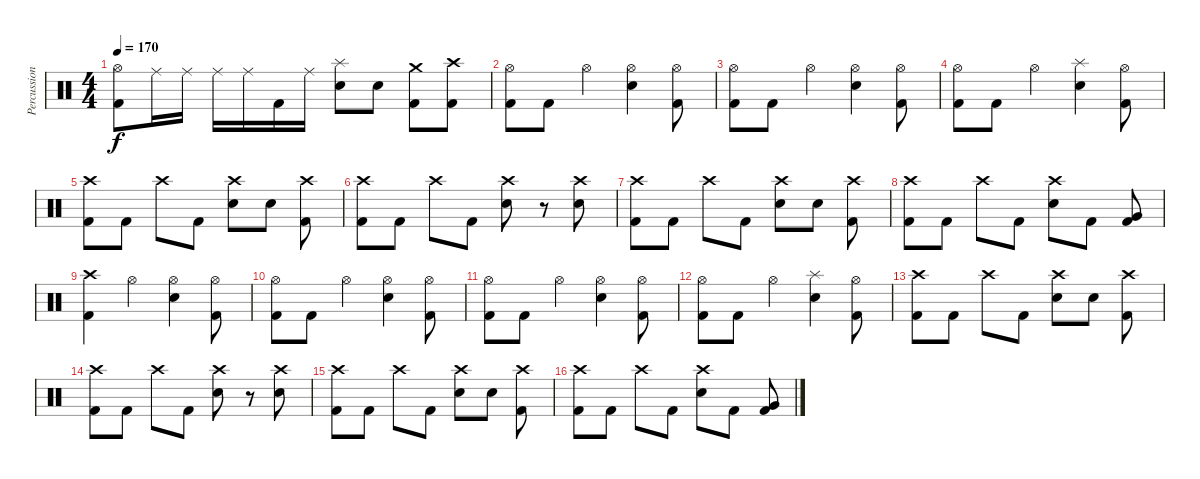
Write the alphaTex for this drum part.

\track ("Percussion" "Percussion") {instrument percussion}
\staff {score}
\articulation defaults
\ts (4 4)
\tempo 170
\clef neutral
\ks c
("Kick (hit) 2" "Hi-Hat (open)").8{dy f} "Ride (middle)".16 "Ride (middle)".16 "Ride (middle)".16 "Ride (middle)".16 "Kick (hit) 2".16 "Ride (middle)".16 ("Snare (hit) 2" "Splash (hit)").8 "Snare (hit) 2".8 ("Kick (hit) 2" "Crash medium (hit)").8 ("Kick (hit) 2" "Crash high (hit)").8 |
("Kick (hit) 2" "Hi-Hat (open)").8 "Kick (hit) 2".8 "Hi-Hat (open)".4 ("Snare (hit) 2" "Hi-Hat (open)").4 ("Kick (hit) 2" "Hi-Hat (open)").8 |
("Kick (hit) 2" "Hi-Hat (open)").8 "Kick (hit) 2".8 "Hi-Hat (open)".4 ("Snare (hit) 2" "Hi-Hat (open)").4 ("Kick (hit) 2" "Hi-Hat (open)").8 |
("Kick (hit) 2" "Hi-Hat (open)").8 "Kick (hit) 2".8 "Hi-Hat (open)".4 ("Snare (hit) 2" "Splash (hit)").4 ("Kick (hit) 2" "Hi-Hat (open)").8 |
("Kick (hit) 2" "Crash high (hit)").8 "Kick (hit) 2".8 "Crash high (hit)".8 "Kick (hit) 2".8 ("Snare (hit) 2" "Crash high (hit)").8 "Snare (hit) 2".8 ("Kick (hit) 2" "Crash high (hit)").8 |
("Kick (hit) 2" "Crash high (hit)").8 "Kick (hit) 2".8 "Crash high (hit)".8 "Kick (hit) 2".8 ("Snare (hit) 2" "Crash high (hit)").8 r.8 ("Snare (hit) 2" "Crash high (hit)").8 |
("Kick (hit) 2" "Crash high (hit)").8 "Kick (hit) 2".8 "Crash high (hit)".8 "Kick (hit) 2".8 ("Snare (hit) 2" "Crash high (hit)").8 "Snare (hit) 2".8 ("Kick (hit) 2" "Crash high (hit)").8 |
("Kick (hit) 2" "Crash high (hit)").8 "Kick (hit) 2".8 "Crash high (hit)".8 "Kick (hit) 2".8 ("Snare (hit) 2" "Crash high (hit)").8 "Kick (hit) 2".8 ("Kick (hit) 2" "Very Low Tom (hit)").8 |
("Kick (hit) 2" "Crash high (hit)").4 "Hi-Hat (open)".4 ("Snare (hit) 2" "Hi-Hat (open)").4 ("Kick (hit) 2" "Hi-Hat (open)").8 |
("Kick (hit) 2" "Hi-Hat (open)").8 "Kick (hit) 2".8 "Hi-Hat (open)".4 ("Snare (hit) 2" "Hi-Hat (open)").4 ("Kick (hit) 2" "Hi-Hat (open)").8 |
("Kick (hit) 2" "Hi-Hat (open)").8 "Kick (hit) 2".8 "Hi-Hat (open)".4 ("Snare (hit) 2" "Hi-Hat (open)").4 ("Kick (hit) 2" "Hi-Hat (open)").8 |
("Kick (hit) 2" "Hi-Hat (open)").8 "Kick (hit) 2".8 "Hi-Hat (open)".4 ("Snare (hit) 2" "Splash (hit)").4 ("Kick (hit) 2" "Hi-Hat (open)").8 |
("Kick (hit) 2" "Crash high (hit)").8 "Kick (hit) 2".8 "Crash high (hit)".8 "Kick (hit) 2".8 ("Snare (hit) 2" "Crash high (hit)").8 "Snare (hit) 2".8 ("Kick (hit) 2" "Crash high (hit)").8 |
("Kick (hit) 2" "Crash high (hit)").8 "Kick (hit) 2".8 "Crash high (hit)".8 "Kick (hit) 2".8 ("Snare (hit) 2" "Crash high (hit)").8 r.8 ("Snare (hit) 2" "Crash high (hit)").8 |
("Kick (hit) 2" "Crash high (hit)").8 "Kick (hit) 2".8 "Crash high (hit)".8 "Kick (hit) 2".8 ("Snare (hit) 2" "Crash high (hit)").8 "Snare (hit) 2".8 ("Kick (hit) 2" "Crash high (hit)").8 |
("Kick (hit) 2" "Crash high (hit)").8 "Kick (hit) 2".8 "Crash high (hit)".8 "Kick (hit) 2".8 ("Snare (hit) 2" "Crash high (hit)").8 "Kick (hit) 2".8 ("Kick (hit) 2" "Very Low Tom (hit)").8
